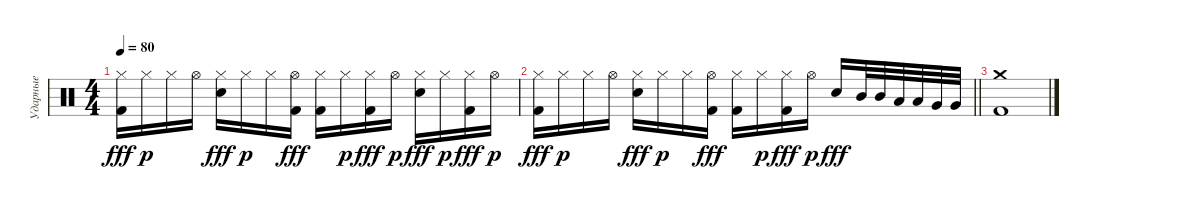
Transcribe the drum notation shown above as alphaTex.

\track ("Ударные" "Ударные") {instrument percussion}
\staff {score}
\articulation defaults
\ts (4 4)
\tempo 80
\clef neutral
\ks c
("Hi-Hat (closed)" "Kick (hit) 2").16{dy fff} "Hi-Hat (closed)".16{dy p} "Hi-Hat (closed)".16 "Hi-Hat (open)".16 ("Hi-Hat (closed)" "Snare (hit) 2").16{dy fff} "Hi-Hat (closed)".16{dy p} "Hi-Hat (closed)".16 ("Hi-Hat (open)" "Kick (hit) 2").16{dy fff} ("Hi-Hat (closed)" "Kick (hit) 2").16 "Hi-Hat (closed)".16{dy p} ("Hi-Hat (closed)" "Kick (hit) 2").16{dy fff} "Hi-Hat (open)".16{dy p} ("Hi-Hat (closed)" "Snare (hit) 2").16{dy fff} "Hi-Hat (closed)".16{dy p} ("Hi-Hat (closed)" "Kick (hit) 2").16{dy fff} "Hi-Hat (open)".16{dy p} |
\barLineRight lightlight
("Hi-Hat (closed)" "Kick (hit) 2").16{dy fff} "Hi-Hat (closed)".16{dy p} "Hi-Hat (closed)".16 "Hi-Hat (open)".16 ("Hi-Hat (closed)" "Snare (hit) 2").16{dy fff} "Hi-Hat (closed)".16{dy p} "Hi-Hat (closed)".16 ("Hi-Hat (open)" "Kick (hit) 2").16{dy fff} ("Hi-Hat (closed)" "Kick (hit) 2").16 "Hi-Hat (closed)".16{dy p} ("Hi-Hat (closed)" "Kick (hit) 2").16{dy fff} "Hi-Hat (open)".16{dy p} "Snare (hit) 2".16{dy fff} "Mid Tom (hit)".32 "Mid Tom (hit)".32 "Low Tom (hit)".32 "Low Tom (hit)".32 "Very Low Tom (hit)".32 "Very Low Tom (hit)".32 |
("Crash medium (hit)" "Kick (hit) 2").1
